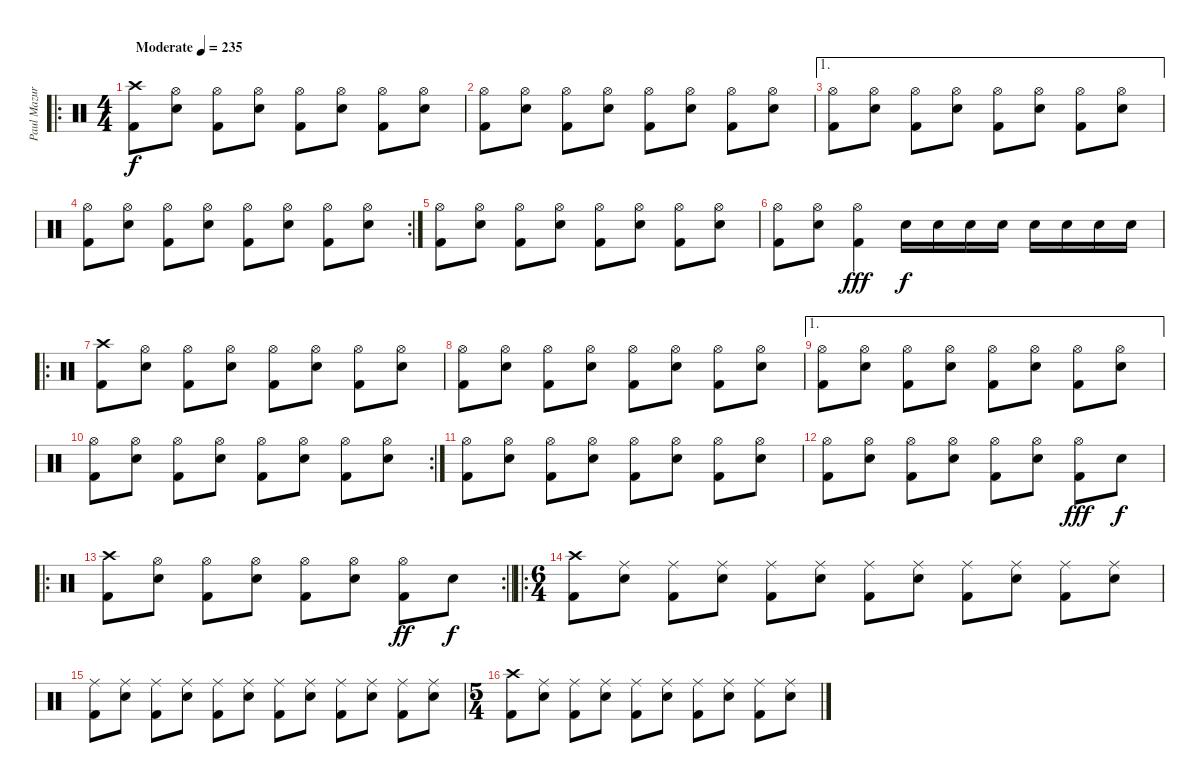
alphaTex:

\track ("Paul Mazurkiewicz" "Paul Mazur") {instrument percussion}
\staff {score}
\articulation defaults
\ro
\ts (4 4)
\tempo (235 "Moderate")
\clef neutral
\ks c
("Crash high (hit)" "Kick (hit) 2").8{dy f} ("Hi-Hat (open)" "Electric Snare (hit)").8 ("Hi-Hat (open)" "Kick (hit) 2").8 ("Hi-Hat (open)" "Electric Snare (hit)").8 ("Hi-Hat (open)" "Kick (hit) 2").8 ("Hi-Hat (open)" "Electric Snare (hit)").8 ("Hi-Hat (open)" "Kick (hit) 2").8 ("Hi-Hat (open)" "Electric Snare (hit)").8 |
("Hi-Hat (open)" "Kick (hit) 2").8 ("Hi-Hat (open)" "Electric Snare (hit)").8 ("Hi-Hat (open)" "Kick (hit) 2").8 ("Hi-Hat (open)" "Electric Snare (hit)").8 ("Hi-Hat (open)" "Kick (hit) 2").8 ("Hi-Hat (open)" "Electric Snare (hit)").8 ("Hi-Hat (open)" "Kick (hit) 2").8 ("Hi-Hat (open)" "Electric Snare (hit)").8 |
\ae 1
("Hi-Hat (open)" "Kick (hit) 2").8 ("Hi-Hat (open)" "Electric Snare (hit)").8 ("Hi-Hat (open)" "Kick (hit) 2").8 ("Hi-Hat (open)" "Electric Snare (hit)").8 ("Hi-Hat (open)" "Kick (hit) 2").8 ("Hi-Hat (open)" "Electric Snare (hit)").8 ("Hi-Hat (open)" "Kick (hit) 2").8 ("Hi-Hat (open)" "Electric Snare (hit)").8 |
\rc 2
("Hi-Hat (open)" "Kick (hit) 2").8 ("Hi-Hat (open)" "Electric Snare (hit)").8 ("Hi-Hat (open)" "Kick (hit) 2").8 ("Hi-Hat (open)" "Electric Snare (hit)").8 ("Hi-Hat (open)" "Kick (hit) 2").8 ("Hi-Hat (open)" "Electric Snare (hit)").8 ("Hi-Hat (open)" "Kick (hit) 2").8 ("Hi-Hat (open)" "Electric Snare (hit)").8 |
("Hi-Hat (open)" "Kick (hit) 2").8 ("Hi-Hat (open)" "Electric Snare (hit)").8 ("Hi-Hat (open)" "Kick (hit) 2").8 ("Hi-Hat (open)" "Electric Snare (hit)").8 ("Hi-Hat (open)" "Kick (hit) 2").8 ("Hi-Hat (open)" "Electric Snare (hit)").8 ("Hi-Hat (open)" "Kick (hit) 2").8 ("Hi-Hat (open)" "Electric Snare (hit)").8 |
("Hi-Hat (open)" "Kick (hit) 2").8 ("Hi-Hat (open)" "Electric Snare (hit)").8 ("Hi-Hat (open)" "Kick (hit) 2").4{dy fff} "Electric Snare (hit)".16{dy f} "Electric Snare (hit)".16 "Electric Snare (hit)".16 "Electric Snare (hit)".16 "Electric Snare (hit)".16 "Electric Snare (hit)".16 "Electric Snare (hit)".16 "Electric Snare (hit)".16 |
\ro
("Crash high (hit)" "Kick (hit) 2").8 ("Hi-Hat (open)" "Electric Snare (hit)").8 ("Hi-Hat (open)" "Kick (hit) 2").8 ("Hi-Hat (open)" "Electric Snare (hit)").8 ("Hi-Hat (open)" "Kick (hit) 2").8 ("Hi-Hat (open)" "Electric Snare (hit)").8 ("Hi-Hat (open)" "Kick (hit) 2").8 ("Hi-Hat (open)" "Electric Snare (hit)").8 |
("Hi-Hat (open)" "Kick (hit) 2").8 ("Hi-Hat (open)" "Electric Snare (hit)").8 ("Hi-Hat (open)" "Kick (hit) 2").8 ("Hi-Hat (open)" "Electric Snare (hit)").8 ("Hi-Hat (open)" "Kick (hit) 2").8 ("Hi-Hat (open)" "Electric Snare (hit)").8 ("Hi-Hat (open)" "Kick (hit) 2").8 ("Hi-Hat (open)" "Electric Snare (hit)").8 |
\ae 1
("Hi-Hat (open)" "Kick (hit) 2").8 ("Hi-Hat (open)" "Electric Snare (hit)").8 ("Hi-Hat (open)" "Kick (hit) 2").8 ("Hi-Hat (open)" "Electric Snare (hit)").8 ("Hi-Hat (open)" "Kick (hit) 2").8 ("Hi-Hat (open)" "Electric Snare (hit)").8 ("Hi-Hat (open)" "Kick (hit) 2").8 ("Hi-Hat (open)" "Electric Snare (hit)").8 |
\rc 2
("Hi-Hat (open)" "Kick (hit) 2").8 ("Hi-Hat (open)" "Electric Snare (hit)").8 ("Hi-Hat (open)" "Kick (hit) 2").8 ("Hi-Hat (open)" "Electric Snare (hit)").8 ("Hi-Hat (open)" "Kick (hit) 2").8 ("Hi-Hat (open)" "Electric Snare (hit)").8 ("Hi-Hat (open)" "Kick (hit) 2").8 ("Hi-Hat (open)" "Electric Snare (hit)").8 |
("Hi-Hat (open)" "Kick (hit) 2").8 ("Hi-Hat (open)" "Electric Snare (hit)").8 ("Hi-Hat (open)" "Kick (hit) 2").8 ("Hi-Hat (open)" "Electric Snare (hit)").8 ("Hi-Hat (open)" "Kick (hit) 2").8 ("Hi-Hat (open)" "Electric Snare (hit)").8 ("Hi-Hat (open)" "Kick (hit) 2").8 ("Hi-Hat (open)" "Electric Snare (hit)").8 |
("Hi-Hat (open)" "Kick (hit) 2").8 ("Hi-Hat (open)" "Electric Snare (hit)").8 ("Hi-Hat (open)" "Kick (hit) 2").8 ("Hi-Hat (open)" "Electric Snare (hit)").8 ("Hi-Hat (open)" "Kick (hit) 2").8 ("Hi-Hat (open)" "Electric Snare (hit)").8 ("Hi-Hat (open)" "Kick (hit) 2").8{dy fff} "Electric Snare (hit)".8{dy f} |
\ro
\rc 2
\barLineRight lightlight
("Crash high (hit)" "Kick (hit) 2").8 ("Hi-Hat (open)" "Electric Snare (hit)").8 ("Hi-Hat (open)" "Kick (hit) 2").8 ("Hi-Hat (open)" "Electric Snare (hit)").8 ("Hi-Hat (open)" "Kick (hit) 2").8 ("Hi-Hat (open)" "Electric Snare (hit)").8 ("Hi-Hat (open)" "Kick (hit) 2").8{dy ff} "Electric Snare (hit)".8{dy f} |
\ro
\ts (6 4)
\section ("" "")
("Crash high (hit)" "Kick (hit) 2").8 ("Ride (middle)" "Electric Snare (hit)").8 ("Ride (middle)" "Kick (hit) 2").8 ("Ride (middle)" "Electric Snare (hit)").8 ("Ride (middle)" "Kick (hit) 2").8 ("Ride (middle)" "Electric Snare (hit)").8 ("Ride (middle)" "Kick (hit) 2").8 ("Ride (middle)" "Electric Snare (hit)").8 ("Ride (middle)" "Kick (hit) 2").8 ("Ride (middle)" "Electric Snare (hit)").8 ("Ride (middle)" "Kick (hit) 2").8 ("Ride (middle)" "Electric Snare (hit)").8 |
("Ride (middle)" "Kick (hit) 2").8 ("Ride (middle)" "Electric Snare (hit)").8 ("Ride (middle)" "Kick (hit) 2").8 ("Ride (middle)" "Electric Snare (hit)").8 ("Ride (middle)" "Kick (hit) 2").8 ("Ride (middle)" "Electric Snare (hit)").8 ("Ride (middle)" "Kick (hit) 2").8 ("Ride (middle)" "Electric Snare (hit)").8 ("Ride (middle)" "Kick (hit) 2").8 ("Ride (middle)" "Electric Snare (hit)").8 ("Ride (middle)" "Kick (hit) 2").8 ("Ride (middle)" "Electric Snare (hit)").8 |
\ts (5 4)
("Crash high (hit)" "Kick (hit) 2").8 ("Ride (middle)" "Electric Snare (hit)").8 ("Ride (middle)" "Kick (hit) 2").8 ("Ride (middle)" "Electric Snare (hit)").8 ("Ride (middle)" "Kick (hit) 2").8 ("Ride (middle)" "Electric Snare (hit)").8 ("Ride (middle)" "Kick (hit) 2").8 ("Ride (middle)" "Electric Snare (hit)").8 ("Ride (middle)" "Kick (hit) 2").8 ("Ride (middle)" "Electric Snare (hit)").8
